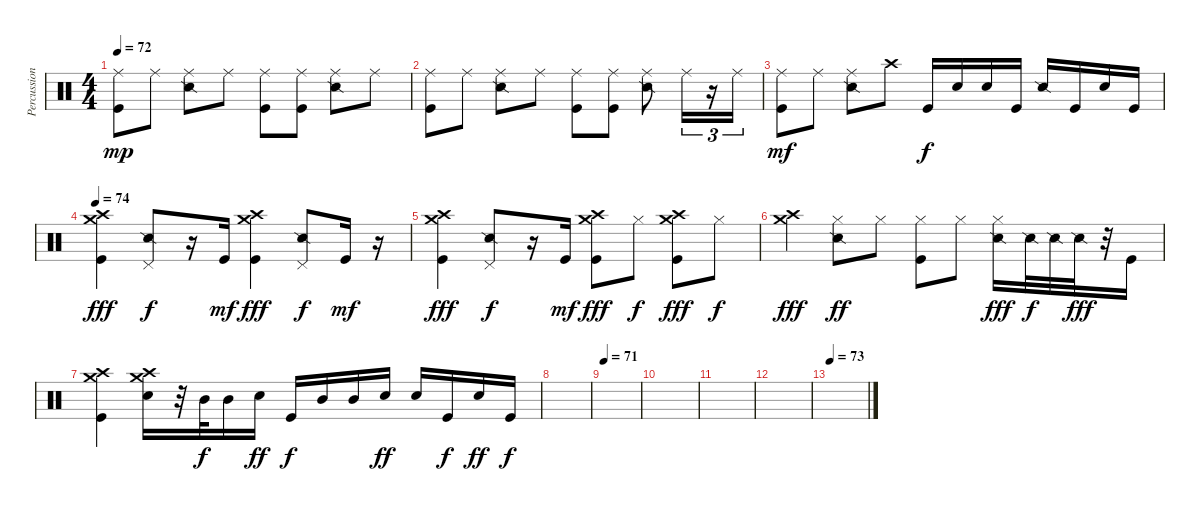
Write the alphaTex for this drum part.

\track ("Percussion" "Percussion") {instrument percussion}
\staff {score}
\articulation defaults
\ts (4 4)
\tempo 72
\clef neutral
\ks c
("Ride (middle)" "Kick (hit)").8{dy mp} "Ride (middle)".8 ("Ride (middle)" "Snare (side stick) 2").8 "Ride (middle)".8 ("Ride (middle)" "Kick (hit)").8 ("Ride (middle)" "Kick (hit)").8 ("Ride (middle)" "Snare (side stick) 2").8 "Ride (middle)".8 |
("Ride (middle)" "Kick (hit)").8 "Ride (middle)".8 ("Ride (middle)" "Snare (side stick) 2").8 "Ride (middle)".8 ("Ride (middle)" "Kick (hit)").8 ("Ride (middle)" "Kick (hit)").8 ("Ride (middle)" "Snare (side stick) 2").8 "Ride (middle)".16{tu (3 2)} r.16{tu (3 2)} "Ride (middle)".16{tu (3 2)} |
("Ride (middle)" "Kick (hit)").8{dy mf} "Ride (middle)".8 ("Ride (middle)" "Snare (side stick) 2").8 "Crash high (hit)".8 "Kick (hit)".16{dy f} "Electric Snare (hit)".16 "Electric Snare (hit)".16 "Kick (hit)".16 "Snare (side stick) 2".16 "Kick (hit)".16 "Snare (hit) 2".16 "Kick (hit)".16 |
\tempo 74
("Crash medium (hit)" "Crash high (hit)" "Kick (hit)").4{dy fff} ("Pedal Hi-Hat (hit)" "Snare (side stick) 2").8{dy f} r.16 "Kick (hit)".16{dy mf} ("Crash medium (hit)" "Crash high (hit)" "Kick (hit)").4{dy fff} ("Pedal Hi-Hat (hit)" "Snare (side stick) 2").8{dy f} "Kick (hit)".16{dy mf} r.16 |
("Crash medium (hit)" "Crash high (hit)" "Kick (hit)").4{dy fff} ("Pedal Hi-Hat (hit)" "Snare (side stick) 2").8{dy f} r.16 "Kick (hit)".16{dy mf} ("Crash medium (hit)" "Crash high (hit)" "Kick (hit)").8{dy fff} "Hi-Hat (closed)".8{dy f} ("Crash medium (hit)" "Crash high (hit)" "Kick (hit)").8{dy fff} "Hi-Hat (closed)".8{dy f} |
("Crash medium (hit)" "Crash high (hit)").4{dy fff} ("Hi-Hat (closed)" "Snare (side stick) 2").8{dy ff} "Hi-Hat (closed)".8 ("Hi-Hat (closed)" "Kick (hit)").8 "Hi-Hat (closed)".8 ("Hi-Hat (closed)" "Snare (side stick) 2").16{dy fff} "Snare (side stick) 2".32{dy f} "Snare (side stick) 2".32 "Snare (side stick) 2".32{dy fff} r.32 "Kick (hit)".16 |
("Crash medium (hit)" "Crash high (hit)" "Kick (hit)").4 ("Crash high (hit)" "Electric Snare (hit)" "Crash medium (hit)").16 r.32 "Mid Tom (hit)".32{dy f} "Mid Tom (hit)".16 "Electric Snare (hit)".16{dy ff} "Kick (hit)".16{dy f} "Mid Tom (hit)".16 "Mid Tom (hit)".16 "Electric Snare (hit)".16{dy ff} "Electric Snare (hit)".16 "Kick (hit)".16{dy f} "Electric Snare (hit)".16{dy ff} "Kick (hit)".16{dy f} |
|
\tempo 71
|
|
|
|
\tempo 73
